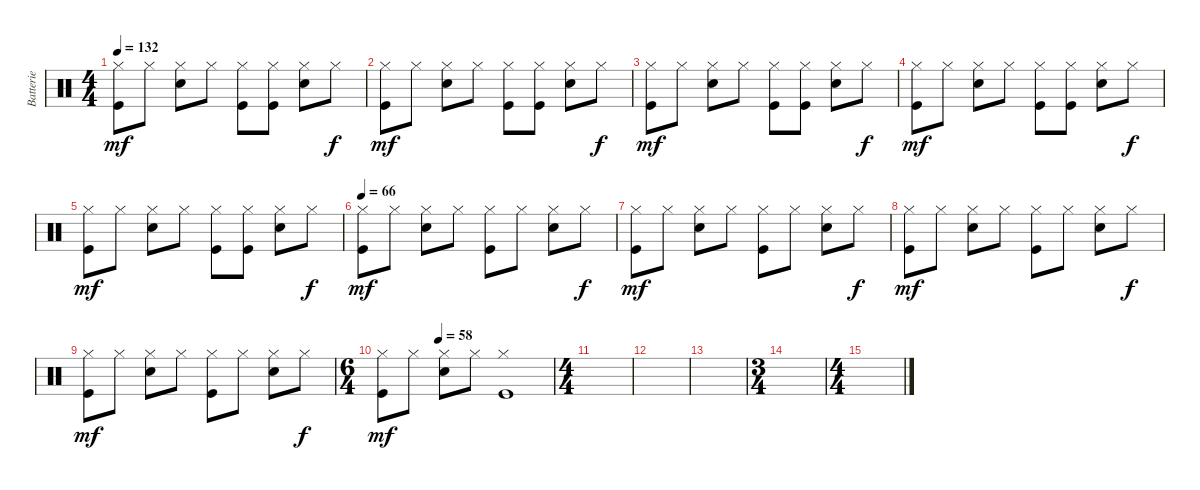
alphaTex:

\track ("Batterie" "Batterie") {instrument percussion}
\staff {score}
\articulation defaults
\ts (4 4)
\tempo 132
\clef neutral
\ks c
("Hi-Hat (closed)" "Kick (hit)").8{dy mf} "Hi-Hat (closed)".8 ("Hi-Hat (closed)" "Snare (hit) 2").8 "Hi-Hat (closed)".8 ("Hi-Hat (closed)" "Kick (hit)").8 ("Hi-Hat (closed)" "Kick (hit)").8 ("Hi-Hat (closed)" "Snare (hit) 2").8 "Hi-Hat (closed)".8{dy f} |
("Hi-Hat (closed)" "Kick (hit)").8{dy mf} "Hi-Hat (closed)".8 ("Hi-Hat (closed)" "Snare (hit) 2").8 "Hi-Hat (closed)".8 ("Hi-Hat (closed)" "Kick (hit)").8 ("Hi-Hat (closed)" "Kick (hit)").8 ("Hi-Hat (closed)" "Snare (hit) 2").8 "Hi-Hat (closed)".8{dy f} |
("Hi-Hat (closed)" "Kick (hit)").8{dy mf} "Hi-Hat (closed)".8 ("Hi-Hat (closed)" "Snare (hit) 2").8 "Hi-Hat (closed)".8 ("Hi-Hat (closed)" "Kick (hit)").8 ("Hi-Hat (closed)" "Kick (hit)").8 ("Hi-Hat (closed)" "Snare (hit) 2").8 "Hi-Hat (closed)".8{dy f} |
("Hi-Hat (closed)" "Kick (hit)").8{dy mf} "Hi-Hat (closed)".8 ("Hi-Hat (closed)" "Snare (hit) 2").8 "Hi-Hat (closed)".8 ("Hi-Hat (closed)" "Kick (hit)").8 ("Hi-Hat (closed)" "Kick (hit)").8 ("Hi-Hat (closed)" "Snare (hit) 2").8 "Hi-Hat (closed)".8{dy f} |
("Hi-Hat (closed)" "Kick (hit)").8{dy mf} "Hi-Hat (closed)".8 ("Hi-Hat (closed)" "Snare (hit) 2").8 "Hi-Hat (closed)".8 ("Hi-Hat (closed)" "Kick (hit)").8 ("Hi-Hat (closed)" "Kick (hit)").8 ("Hi-Hat (closed)" "Snare (hit) 2").8 "Hi-Hat (closed)".8{dy f} |
\tempo 66
("Hi-Hat (closed)" "Kick (hit)").8{dy mf} "Hi-Hat (closed)".8 ("Hi-Hat (closed)" "Snare (hit) 2").8 "Hi-Hat (closed)".8 ("Hi-Hat (closed)" "Kick (hit)").8 "Hi-Hat (closed)".8 ("Hi-Hat (closed)" "Snare (hit) 2").8 "Hi-Hat (closed)".8{dy f} |
("Hi-Hat (closed)" "Kick (hit)").8{dy mf} "Hi-Hat (closed)".8 ("Hi-Hat (closed)" "Snare (hit) 2").8 "Hi-Hat (closed)".8 ("Hi-Hat (closed)" "Kick (hit)").8 "Hi-Hat (closed)".8 ("Hi-Hat (closed)" "Snare (hit) 2").8 "Hi-Hat (closed)".8{dy f} |
("Hi-Hat (closed)" "Kick (hit)").8{dy mf} "Hi-Hat (closed)".8 ("Hi-Hat (closed)" "Snare (hit) 2").8 "Hi-Hat (closed)".8 ("Hi-Hat (closed)" "Kick (hit)").8 "Hi-Hat (closed)".8 ("Hi-Hat (closed)" "Snare (hit) 2").8 "Hi-Hat (closed)".8{dy f} |
("Hi-Hat (closed)" "Kick (hit)").8{dy mf} "Hi-Hat (closed)".8 ("Hi-Hat (closed)" "Snare (hit) 2").8 "Hi-Hat (closed)".8 ("Hi-Hat (closed)" "Kick (hit)").8 "Hi-Hat (closed)".8 ("Hi-Hat (closed)" "Snare (hit) 2").8 "Hi-Hat (closed)".8{dy f} |
\ts (6 4)
\tempo (58 0.3333333333333333)
("Hi-Hat (closed)" "Kick (hit)").8{dy mf} "Hi-Hat (closed)".8 ("Hi-Hat (closed)" "Snare (hit) 2").8 "Hi-Hat (closed)".8 ("Hi-Hat (closed)" "Kick (hit)").1 |
\ts (4 4)
|
|
|
\ts (3 4)
|
\ts (4 4)
